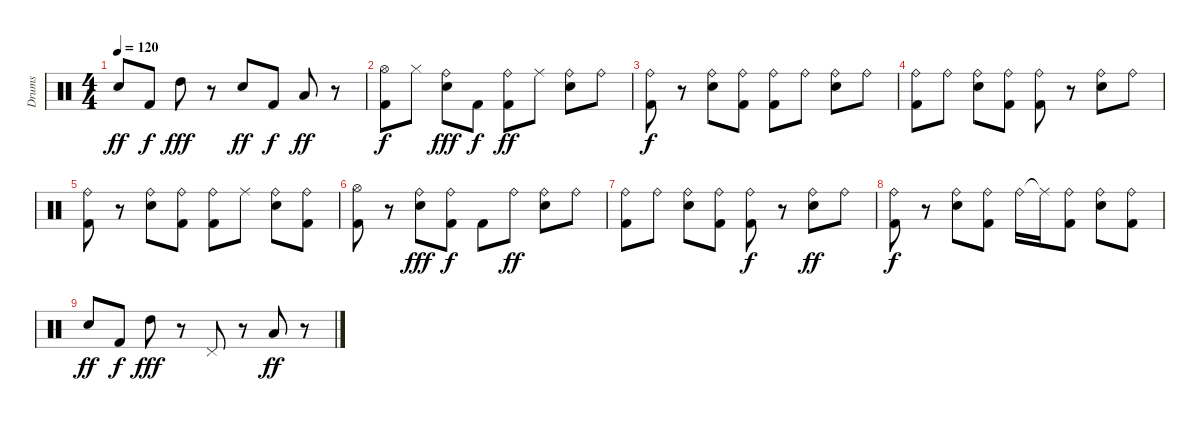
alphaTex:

\track ("Drums" "Drums") {instrument percussion}
\staff {score}
\articulation defaults
\ts (4 4)
\tempo 120
\clef neutral
\ks c "Snare (hit) 2".8{dy ff} "Kick (hit) 2".8{dy f} "High Tom (hit)".8{dy fff}
r.8 "Snare (hit) 2".8{dy ff} "Kick (hit) 2".8{dy f} "Low Tom (hit)".8{dy ff} r.8 |
("Hi-Hat (open)" "Kick (hit) 2").8{dy f} "Hi-Hat (closed)".8 ("Ride (bell)" "Snare (hit) 2").8{dy fff} "Kick (hit) 2".8{dy f} ("Ride (bell)" "Kick (hit) 2").8{dy ff} "Ride (middle)".8 ("Ride (bell)" "Snare (hit) 2").8 "Ride (bell)".8 |
("Ride (bell)" "Kick (hit) 2").8{dy f} r.8 ("Ride (bell)" "Snare (hit) 2").8 ("Ride (bell)" "Kick (hit) 2").8 ("Ride (bell)" "Kick (hit) 2").8 "Ride (bell)".8 ("Ride (bell)" "Snare (hit) 2").8 "Ride (bell)".8 |
("Ride (bell)" "Kick (hit) 2").8 "Ride (bell)".8 ("Ride (bell)" "Snare (hit) 2").8 ("Ride (bell)" "Kick (hit) 2").8 ("Ride (bell)" "Kick (hit) 2").8 r.8 ("Ride (bell)" "Snare (hit) 2").8 "Ride (bell)".8 |
("Ride (bell)" "Kick (hit) 2").8 r.8 ("Ride (bell)" "Snare (hit) 2").8 ("Ride (bell)" "Kick (hit) 2").8 ("Ride (bell)" "Kick (hit) 2").8 "Ride (middle)".8 ("Ride (bell)" "Snare (hit) 2").8 ("Ride (bell)" "Kick (hit) 2").8 |
("Hi-Hat (open)" "Kick (hit) 2").8 r.8 ("Ride (bell)" "Snare (hit) 2").8{dy fff} ("Ride (bell)" "Kick (hit) 2").8{dy f} "Kick (hit) 2".8 "Ride (bell)".8{dy ff} ("Ride (bell)" "Snare (hit) 2").8 "Ride (bell)".8 |
("Ride (bell)" "Kick (hit) 2").8 "Ride (bell)".8 ("Ride (bell)" "Snare (hit) 2").8 ("Ride (bell)" "Kick (hit) 2").8 ("Ride (bell)" "Kick (hit) 2").8{dy f} r.8 ("Ride (bell)" "Snare (hit) 2").8{dy ff} "Ride (bell)".8 |
("Ride (bell)" "Kick (hit) 2").8{dy f} r.8 ("Ride (bell)" "Snare (hit) 2").8 ("Ride (bell)" "Kick (hit) 2").8 "Ride (bell)".16 "Ride (middle)"{t}.16 ("Ride (bell)" "Kick (hit) 2").8 ("Ride (bell)" "Snare (hit) 2").8 ("Ride (bell)" "Kick (hit) 2").8 |
"Snare (hit) 2".8{dy ff} "Kick (hit) 2".8{dy f} "High Tom (hit)".8{dy fff} r.8 "Pedal Hi-Hat (hit)".8 r.8 "Low Tom (hit)".8{dy ff} r.8
